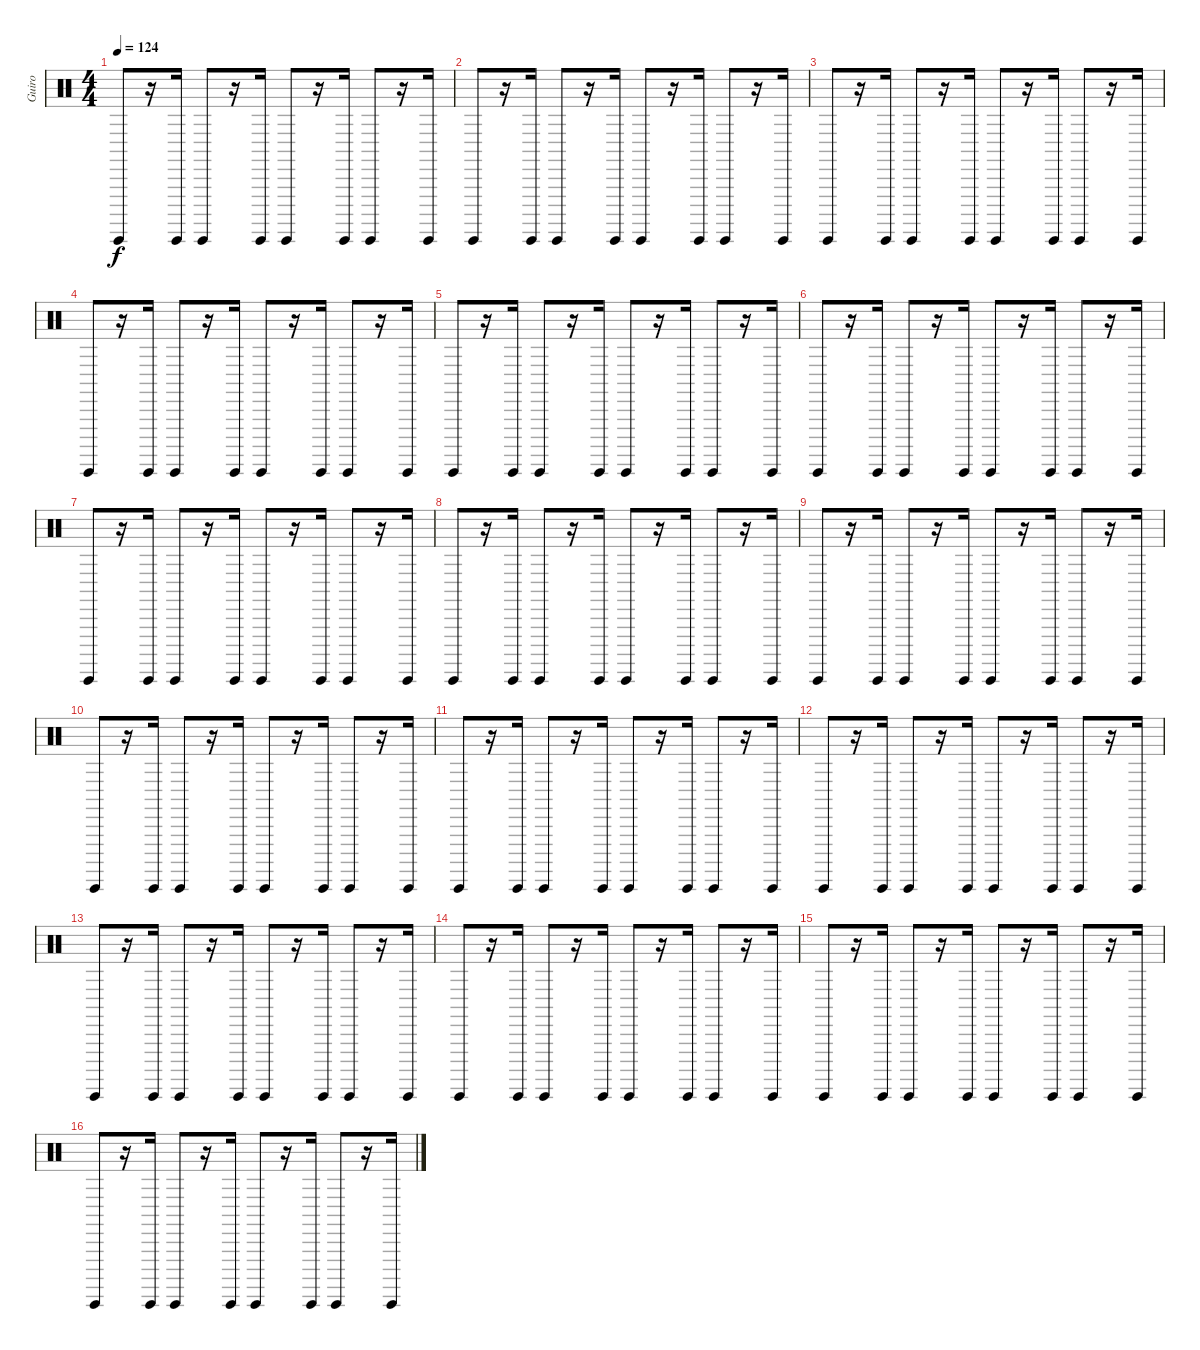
\track ("Guiro" "Guiro") {instrument percussion}
\staff {score}
\articulation defaults
\ts (4 4)
\tempo 124
\clef neutral
\ks c "Guiro (hit)".8{dy f}
r.16 "Guiro (hit)".16 "Guiro (hit)".8 r.16 "Guiro (hit)".16 "Guiro (hit)".8 r.16 "Guiro (hit)".16 "Guiro (hit)".8 r.16 "Guiro (hit)".16 |
"Guiro (hit)".8 r.16 "Guiro (hit)".16 "Guiro (hit)".8 r.16 "Guiro (hit)".16 "Guiro (hit)".8 r.16 "Guiro (hit)".16 "Guiro (hit)".8 r.16 "Guiro (hit)".16 |
"Guiro (hit)".8 r.16 "Guiro (hit)".16 "Guiro (hit)".8 r.16 "Guiro (hit)".16 "Guiro (hit)".8 r.16 "Guiro (hit)".16 "Guiro (hit)".8 r.16 "Guiro (hit)".16 |
"Guiro (hit)".8 r.16 "Guiro (hit)".16 "Guiro (hit)".8 r.16 "Guiro (hit)".16 "Guiro (hit)".8 r.16 "Guiro (hit)".16 "Guiro (hit)".8 r.16 "Guiro (hit)".16 |
"Guiro (hit)".8 r.16 "Guiro (hit)".16 "Guiro (hit)".8 r.16 "Guiro (hit)".16 "Guiro (hit)".8 r.16 "Guiro (hit)".16 "Guiro (hit)".8 r.16 "Guiro (hit)".16 |
"Guiro (hit)".8 r.16 "Guiro (hit)".16 "Guiro (hit)".8 r.16 "Guiro (hit)".16 "Guiro (hit)".8 r.16 "Guiro (hit)".16 "Guiro (hit)".8 r.16 "Guiro (hit)".16 |
"Guiro (hit)".8 r.16 "Guiro (hit)".16 "Guiro (hit)".8 r.16 "Guiro (hit)".16 "Guiro (hit)".8 r.16 "Guiro (hit)".16 "Guiro (hit)".8 r.16 "Guiro (hit)".16 |
"Guiro (hit)".8 r.16 "Guiro (hit)".16 "Guiro (hit)".8 r.16 "Guiro (hit)".16 "Guiro (hit)".8 r.16 "Guiro (hit)".16 "Guiro (hit)".8 r.16 "Guiro (hit)".16 |
"Guiro (hit)".8 r.16 "Guiro (hit)".16 "Guiro (hit)".8 r.16 "Guiro (hit)".16 "Guiro (hit)".8 r.16 "Guiro (hit)".16 "Guiro (hit)".8 r.16 "Guiro (hit)".16 |
"Guiro (hit)".8 r.16 "Guiro (hit)".16 "Guiro (hit)".8 r.16 "Guiro (hit)".16 "Guiro (hit)".8 r.16 "Guiro (hit)".16 "Guiro (hit)".8 r.16 "Guiro (hit)".16 |
"Guiro (hit)".8 r.16 "Guiro (hit)".16 "Guiro (hit)".8 r.16 "Guiro (hit)".16 "Guiro (hit)".8 r.16 "Guiro (hit)".16 "Guiro (hit)".8 r.16 "Guiro (hit)".16 |
"Guiro (hit)".8 r.16 "Guiro (hit)".16 "Guiro (hit)".8 r.16 "Guiro (hit)".16 "Guiro (hit)".8 r.16 "Guiro (hit)".16 "Guiro (hit)".8 r.16 "Guiro (hit)".16 |
"Guiro (hit)".8 r.16 "Guiro (hit)".16 "Guiro (hit)".8 r.16 "Guiro (hit)".16 "Guiro (hit)".8 r.16 "Guiro (hit)".16 "Guiro (hit)".8 r.16 "Guiro (hit)".16 |
"Guiro (hit)".8 r.16 "Guiro (hit)".16 "Guiro (hit)".8 r.16 "Guiro (hit)".16 "Guiro (hit)".8 r.16 "Guiro (hit)".16 "Guiro (hit)".8 r.16 "Guiro (hit)".16 |
"Guiro (hit)".8 r.16 "Guiro (hit)".16 "Guiro (hit)".8 r.16 "Guiro (hit)".16 "Guiro (hit)".8 r.16 "Guiro (hit)".16 "Guiro (hit)".8 r.16 "Guiro (hit)".16 |
"Guiro (hit)".8 r.16 "Guiro (hit)".16 "Guiro (hit)".8 r.16 "Guiro (hit)".16 "Guiro (hit)".8 r.16 "Guiro (hit)".16 "Guiro (hit)".8 r.16 "Guiro (hit)".16
